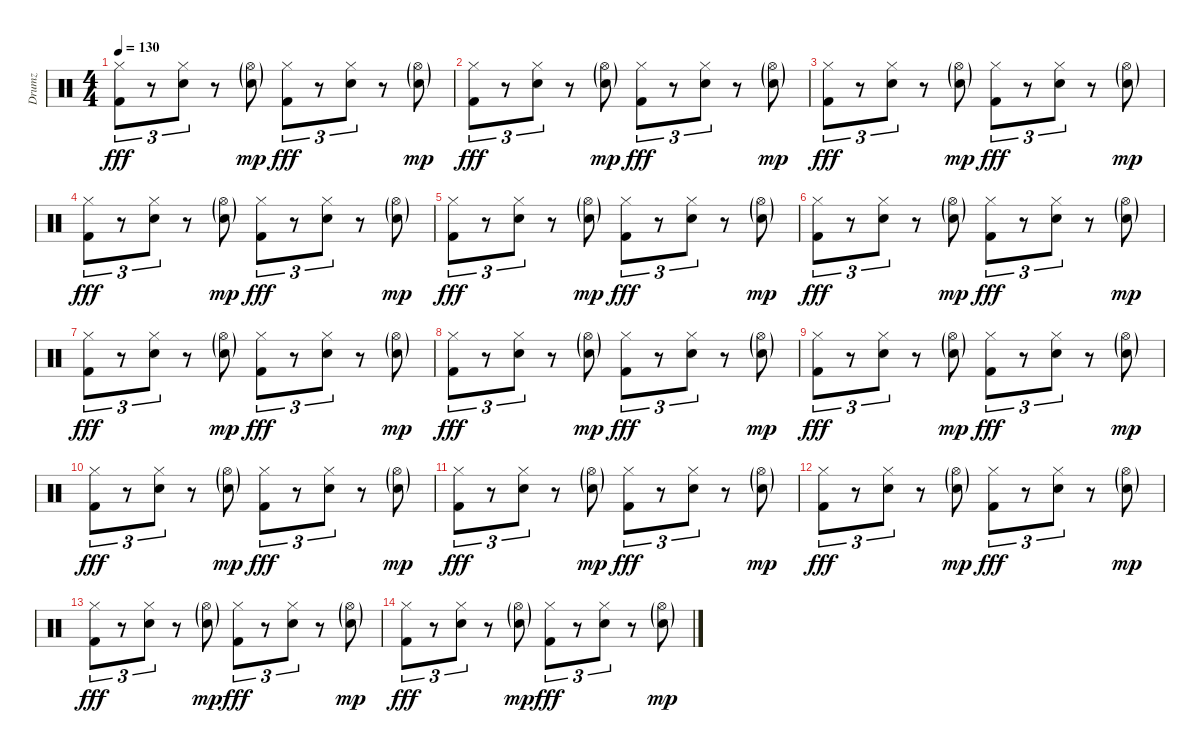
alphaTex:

\track ("Drumz" "Drumz") {instrument percussion}
\staff {score}
\articulation defaults
\ts (4 4)
\tempo 130
\clef neutral
\ks c
("Hi-Hat (closed)" "Kick (hit) 2").8{tu (3 2) dy fff} r.8{tu (3 2)} ("Hi-Hat (closed)" "Snare (hit) 2").8{tu (3 2)} r.8 ("Hi-Hat (open)"{g} "Snare (hit) 2"{g}).8{dy mp} ("Hi-Hat (closed)" "Kick (hit) 2").8{tu (3 2) dy fff} r.8{tu (3 2)} ("Hi-Hat (closed)" "Snare (hit) 2").8{tu (3 2)} r.8 ("Hi-Hat (open)"{g} "Snare (hit) 2"{g}).8{dy mp} |
("Hi-Hat (closed)" "Kick (hit) 2").8{tu (3 2) dy fff} r.8{tu (3 2)} ("Hi-Hat (closed)" "Snare (hit) 2").8{tu (3 2)} r.8 ("Hi-Hat (open)"{g} "Snare (hit) 2"{g}).8{dy mp} ("Hi-Hat (closed)" "Kick (hit) 2").8{tu (3 2) dy fff} r.8{tu (3 2)} ("Hi-Hat (closed)" "Snare (hit) 2").8{tu (3 2)} r.8 ("Hi-Hat (open)"{g} "Snare (hit) 2"{g}).8{dy mp} |
("Hi-Hat (closed)" "Kick (hit) 2").8{tu (3 2) dy fff} r.8{tu (3 2)} ("Hi-Hat (closed)" "Snare (hit) 2").8{tu (3 2)} r.8 ("Hi-Hat (open)"{g} "Snare (hit) 2"{g}).8{dy mp} ("Hi-Hat (closed)" "Kick (hit) 2").8{tu (3 2) dy fff} r.8{tu (3 2)} ("Hi-Hat (closed)" "Snare (hit) 2").8{tu (3 2)} r.8 ("Hi-Hat (open)"{g} "Snare (hit) 2"{g}).8{dy mp} |
("Hi-Hat (closed)" "Kick (hit) 2").8{tu (3 2) dy fff} r.8{tu (3 2)} ("Hi-Hat (closed)" "Snare (hit) 2").8{tu (3 2)} r.8 ("Hi-Hat (open)"{g} "Snare (hit) 2"{g}).8{dy mp} ("Hi-Hat (closed)" "Kick (hit) 2").8{tu (3 2) dy fff} r.8{tu (3 2)} ("Hi-Hat (closed)" "Snare (hit) 2").8{tu (3 2)} r.8 ("Hi-Hat (open)"{g} "Snare (hit) 2"{g}).8{dy mp} |
("Hi-Hat (closed)" "Kick (hit) 2").8{tu (3 2) dy fff} r.8{tu (3 2)} ("Hi-Hat (closed)" "Snare (hit) 2").8{tu (3 2)} r.8 ("Hi-Hat (open)"{g} "Snare (hit) 2"{g}).8{dy mp} ("Hi-Hat (closed)" "Kick (hit) 2").8{tu (3 2) dy fff} r.8{tu (3 2)} ("Hi-Hat (closed)" "Snare (hit) 2").8{tu (3 2)} r.8 ("Hi-Hat (open)"{g} "Snare (hit) 2"{g}).8{dy mp} |
("Hi-Hat (closed)" "Kick (hit) 2").8{tu (3 2) dy fff} r.8{tu (3 2)} ("Hi-Hat (closed)" "Snare (hit) 2").8{tu (3 2)} r.8 ("Hi-Hat (open)"{g} "Snare (hit) 2"{g}).8{dy mp} ("Hi-Hat (closed)" "Kick (hit) 2").8{tu (3 2) dy fff} r.8{tu (3 2)} ("Hi-Hat (closed)" "Snare (hit) 2").8{tu (3 2)} r.8 ("Hi-Hat (open)"{g} "Snare (hit) 2"{g}).8{dy mp} |
("Hi-Hat (closed)" "Kick (hit) 2").8{tu (3 2) dy fff} r.8{tu (3 2)} ("Hi-Hat (closed)" "Snare (hit) 2").8{tu (3 2)} r.8 ("Hi-Hat (open)"{g} "Snare (hit) 2"{g}).8{dy mp} ("Hi-Hat (closed)" "Kick (hit) 2").8{tu (3 2) dy fff} r.8{tu (3 2)} ("Hi-Hat (closed)" "Snare (hit) 2").8{tu (3 2)} r.8 ("Hi-Hat (open)"{g} "Snare (hit) 2"{g}).8{dy mp} |
("Hi-Hat (closed)" "Kick (hit) 2").8{tu (3 2) dy fff} r.8{tu (3 2)} ("Hi-Hat (closed)" "Snare (hit) 2").8{tu (3 2)} r.8 ("Hi-Hat (open)"{g} "Snare (hit) 2"{g}).8{dy mp} ("Hi-Hat (closed)" "Kick (hit) 2").8{tu (3 2) dy fff} r.8{tu (3 2)} ("Hi-Hat (closed)" "Snare (hit) 2").8{tu (3 2)} r.8 ("Hi-Hat (open)"{g} "Snare (hit) 2"{g}).8{dy mp} |
("Hi-Hat (closed)" "Kick (hit) 2").8{tu (3 2) dy fff} r.8{tu (3 2)} ("Hi-Hat (closed)" "Snare (hit) 2").8{tu (3 2)} r.8 ("Hi-Hat (open)"{g} "Snare (hit) 2"{g}).8{dy mp} ("Hi-Hat (closed)" "Kick (hit) 2").8{tu (3 2) dy fff} r.8{tu (3 2)} ("Hi-Hat (closed)" "Snare (hit) 2").8{tu (3 2)} r.8 ("Hi-Hat (open)"{g} "Snare (hit) 2"{g}).8{dy mp} |
("Hi-Hat (closed)" "Kick (hit) 2").8{tu (3 2) dy fff} r.8{tu (3 2)} ("Hi-Hat (closed)" "Snare (hit) 2").8{tu (3 2)} r.8 ("Hi-Hat (open)"{g} "Snare (hit) 2"{g}).8{dy mp} ("Hi-Hat (closed)" "Kick (hit) 2").8{tu (3 2) dy fff} r.8{tu (3 2)} ("Hi-Hat (closed)" "Snare (hit) 2").8{tu (3 2)} r.8 ("Hi-Hat (open)"{g} "Snare (hit) 2"{g}).8{dy mp} |
("Hi-Hat (closed)" "Kick (hit) 2").8{tu (3 2) dy fff} r.8{tu (3 2)} ("Hi-Hat (closed)" "Snare (hit) 2").8{tu (3 2)} r.8 ("Hi-Hat (open)"{g} "Snare (hit) 2"{g}).8{dy mp} ("Hi-Hat (closed)" "Kick (hit) 2").8{tu (3 2) dy fff} r.8{tu (3 2)} ("Hi-Hat (closed)" "Snare (hit) 2").8{tu (3 2)} r.8 ("Hi-Hat (open)"{g} "Snare (hit) 2"{g}).8{dy mp} |
("Hi-Hat (closed)" "Kick (hit) 2").8{tu (3 2) dy fff} r.8{tu (3 2)} ("Hi-Hat (closed)" "Snare (hit) 2").8{tu (3 2)} r.8 ("Hi-Hat (open)"{g} "Snare (hit) 2"{g}).8{dy mp} ("Hi-Hat (closed)" "Kick (hit) 2").8{tu (3 2) dy fff} r.8{tu (3 2)} ("Hi-Hat (closed)" "Snare (hit) 2").8{tu (3 2)} r.8 ("Hi-Hat (open)"{g} "Snare (hit) 2"{g}).8{dy mp} |
("Hi-Hat (closed)" "Kick (hit) 2").8{tu (3 2) dy fff} r.8{tu (3 2)} ("Hi-Hat (closed)" "Snare (hit) 2").8{tu (3 2)} r.8 ("Hi-Hat (open)"{g} "Snare (hit) 2"{g}).8{dy mp} ("Hi-Hat (closed)" "Kick (hit) 2").8{tu (3 2) dy fff} r.8{tu (3 2)} ("Hi-Hat (closed)" "Snare (hit) 2").8{tu (3 2)} r.8 ("Hi-Hat (open)"{g} "Snare (hit) 2"{g}).8{dy mp} |
("Hi-Hat (closed)" "Kick (hit) 2").8{tu (3 2) dy fff} r.8{tu (3 2)} ("Hi-Hat (closed)" "Snare (hit) 2").8{tu (3 2)} r.8 ("Hi-Hat (open)"{g} "Snare (hit) 2"{g}).8{dy mp} ("Hi-Hat (closed)" "Kick (hit) 2").8{tu (3 2) dy fff} r.8{tu (3 2)} ("Hi-Hat (closed)" "Snare (hit) 2").8{tu (3 2)} r.8 ("Hi-Hat (open)"{g} "Snare (hit) 2"{g}).8{dy mp}
